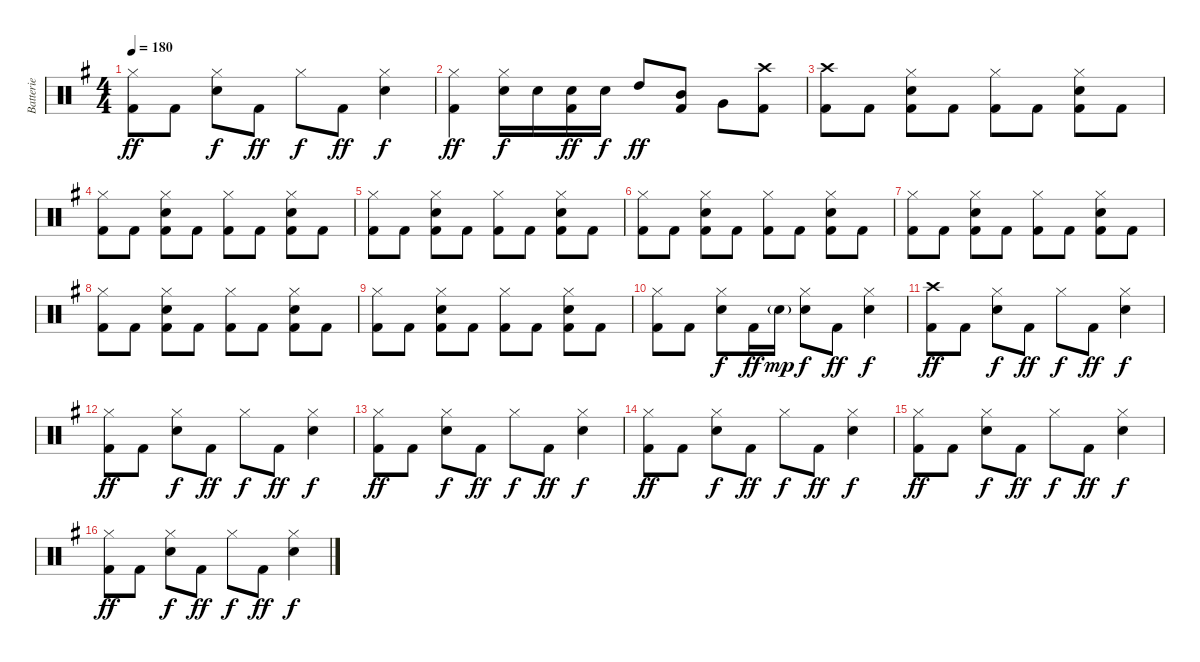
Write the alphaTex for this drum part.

\track ("Batterie" "Batterie") {instrument percussion}
\staff {score}
\articulation defaults
\ts (4 4)
\tempo 180
\clef neutral
\ks g
("Hi-Hat (closed)" "Kick (hit) 2").8{dy ff} "Kick (hit) 2".8 ("Hi-Hat (closed)" "Snare (hit) 2").8{dy f} "Kick (hit) 2".8{dy ff} "Hi-Hat (closed)".8{dy f} "Kick (hit) 2".8{dy ff} ("Hi-Hat (closed)" "Snare (hit) 2").4{dy f} |
("Hi-Hat (closed)" "Kick (hit) 2").4{dy ff} ("Hi-Hat (closed)" "Snare (hit) 2").16{dy f} "Snare (hit) 2".16 ("Snare (hit) 2" "Kick (hit) 2").16{dy ff} "Snare (hit) 2".16{dy f} "High Tom (hit)".8{dy ff} ("Mid Tom (hit)" "Kick (hit) 2").8 "Very Low Tom (hit)".8 ("Crash high (hit)" "Kick (hit) 2").8 |
("Crash high (hit)" "Kick (hit) 2").8 "Kick (hit) 2".8 ("Hi-Hat (closed)" "Snare (hit) 2" "Kick (hit) 2").8 "Kick (hit) 2".8 ("Hi-Hat (closed)" "Kick (hit) 2").8 "Kick (hit) 2".8 ("Hi-Hat (closed)" "Snare (hit) 2" "Kick (hit) 2").8 "Kick (hit) 2".8 |
("Hi-Hat (closed)" "Kick (hit) 2").8 "Kick (hit) 2".8 ("Hi-Hat (closed)" "Snare (hit) 2" "Kick (hit) 2").8 "Kick (hit) 2".8 ("Hi-Hat (closed)" "Kick (hit) 2").8 "Kick (hit) 2".8 ("Hi-Hat (closed)" "Snare (hit) 2" "Kick (hit) 2").8 "Kick (hit) 2".8 |
("Hi-Hat (closed)" "Kick (hit) 2").8 "Kick (hit) 2".8 ("Hi-Hat (closed)" "Snare (hit) 2" "Kick (hit) 2").8 "Kick (hit) 2".8 ("Hi-Hat (closed)" "Kick (hit) 2").8 "Kick (hit) 2".8 ("Hi-Hat (closed)" "Snare (hit) 2" "Kick (hit) 2").8 "Kick (hit) 2".8 |
("Hi-Hat (closed)" "Kick (hit) 2").8 "Kick (hit) 2".8 ("Hi-Hat (closed)" "Snare (hit) 2" "Kick (hit) 2").8 "Kick (hit) 2".8 ("Hi-Hat (closed)" "Kick (hit) 2").8 "Kick (hit) 2".8 ("Hi-Hat (closed)" "Snare (hit) 2" "Kick (hit) 2").8 "Kick (hit) 2".8 |
("Hi-Hat (closed)" "Kick (hit) 2").8 "Kick (hit) 2".8 ("Hi-Hat (closed)" "Snare (hit) 2" "Kick (hit) 2").8 "Kick (hit) 2".8 ("Hi-Hat (closed)" "Kick (hit) 2").8 "Kick (hit) 2".8 ("Hi-Hat (closed)" "Snare (hit) 2" "Kick (hit) 2").8 "Kick (hit) 2".8 |
("Hi-Hat (closed)" "Kick (hit) 2").8 "Kick (hit) 2".8 ("Hi-Hat (closed)" "Snare (hit) 2" "Kick (hit) 2").8 "Kick (hit) 2".8 ("Hi-Hat (closed)" "Kick (hit) 2").8 "Kick (hit) 2".8 ("Hi-Hat (closed)" "Snare (hit) 2" "Kick (hit) 2").8 "Kick (hit) 2".8 |
("Hi-Hat (closed)" "Kick (hit) 2").8 "Kick (hit) 2".8 ("Hi-Hat (closed)" "Snare (hit) 2" "Kick (hit) 2").8 "Kick (hit) 2".8 ("Hi-Hat (closed)" "Kick (hit) 2").8 "Kick (hit) 2".8 ("Hi-Hat (closed)" "Snare (hit) 2" "Kick (hit) 2").8 "Kick (hit) 2".8 |
("Hi-Hat (closed)" "Kick (hit) 2").8 "Kick (hit) 2".8 ("Hi-Hat (closed)" "Snare (hit) 2").8{dy f} "Kick (hit) 2".16{dy ff} "Snare (hit) 2"{g}.16{dy mp} ("Hi-Hat (closed)" "Snare (hit) 2").8{dy f} "Kick (hit) 2".8{dy ff} ("Hi-Hat (closed)" "Snare (hit) 2").4{dy f} |
("Crash high (hit)" "Kick (hit) 2").8{dy ff} "Kick (hit) 2".8 ("Hi-Hat (closed)" "Snare (hit) 2").8{dy f} "Kick (hit) 2".8{dy ff} "Hi-Hat (closed)".8{dy f} "Kick (hit) 2".8{dy ff} ("Hi-Hat (closed)" "Snare (hit) 2").4{dy f} |
("Hi-Hat (closed)" "Kick (hit) 2").8{dy ff} "Kick (hit) 2".8 ("Hi-Hat (closed)" "Snare (hit) 2").8{dy f} "Kick (hit) 2".8{dy ff} "Hi-Hat (closed)".8{dy f} "Kick (hit) 2".8{dy ff} ("Hi-Hat (closed)" "Snare (hit) 2").4{dy f} |
("Hi-Hat (closed)" "Kick (hit) 2").8{dy ff} "Kick (hit) 2".8 ("Hi-Hat (closed)" "Snare (hit) 2").8{dy f} "Kick (hit) 2".8{dy ff} "Hi-Hat (closed)".8{dy f} "Kick (hit) 2".8{dy ff} ("Hi-Hat (closed)" "Snare (hit) 2").4{dy f} |
("Hi-Hat (closed)" "Kick (hit) 2").8{dy ff} "Kick (hit) 2".8 ("Hi-Hat (closed)" "Snare (hit) 2").8{dy f} "Kick (hit) 2".8{dy ff} "Hi-Hat (closed)".8{dy f} "Kick (hit) 2".8{dy ff} ("Hi-Hat (closed)" "Snare (hit) 2").4{dy f} |
("Hi-Hat (closed)" "Kick (hit) 2").8{dy ff} "Kick (hit) 2".8 ("Hi-Hat (closed)" "Snare (hit) 2").8{dy f} "Kick (hit) 2".8{dy ff} "Hi-Hat (closed)".8{dy f} "Kick (hit) 2".8{dy ff} ("Hi-Hat (closed)" "Snare (hit) 2").4{dy f} |
("Hi-Hat (closed)" "Kick (hit) 2").8{dy ff} "Kick (hit) 2".8 ("Hi-Hat (closed)" "Snare (hit) 2").8{dy f} "Kick (hit) 2".8{dy ff} "Hi-Hat (closed)".8{dy f} "Kick (hit) 2".8{dy ff} ("Hi-Hat (closed)" "Snare (hit) 2").4{dy f}
